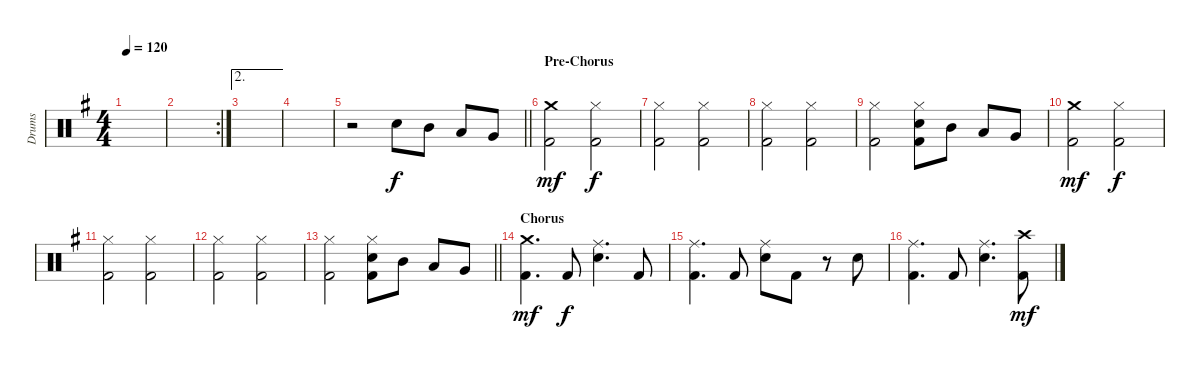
\track ("Drums" "Drums") {instrument percussion}
\staff {score}
\articulation defaults
\ts (4 4)
\tempo 120
\clef neutral
\ks g
|
\rc 2
|
\ae 2
|
|
\barLineRight lightlight
r.2 "Snare (hit) 2".8 "Mid Tom (hit)".8 "Low Tom (hit)".8 "Very Low Tom (hit)".8 |
\section ("" "Pre-Chorus")
("Crash medium (hit)" "Kick (hit) 2").2{dy mf} ("Hi-Hat (closed)" "Kick (hit) 2").2{dy f} |
("Hi-Hat (closed)" "Kick (hit) 2").2 ("Hi-Hat (closed)" "Kick (hit) 2").2 |
("Hi-Hat (closed)" "Kick (hit) 2").2 ("Hi-Hat (closed)" "Kick (hit) 2").2 |
("Hi-Hat (closed)" "Kick (hit) 2").2 ("Hi-Hat (closed)" "Snare (hit) 2" "Kick (hit) 2").8 "Mid Tom (hit)".8 "Low Tom (hit)".8 "Very Low Tom (hit)".8 |
("Crash medium (hit)" "Kick (hit) 2").2{dy mf} ("Hi-Hat (closed)" "Kick (hit) 2").2{dy f} |
("Hi-Hat (closed)" "Kick (hit) 2").2 ("Hi-Hat (closed)" "Kick (hit) 2").2 |
("Hi-Hat (closed)" "Kick (hit) 2").2 ("Hi-Hat (closed)" "Kick (hit) 2").2 |
\barLineRight lightlight
("Hi-Hat (closed)" "Kick (hit) 2").2 ("Hi-Hat (closed)" "Snare (hit) 2" "Kick (hit) 2").8 "Mid Tom (hit)".8 "Low Tom (hit)".8 "Very Low Tom (hit)".8 |
\section ("" "Chorus")
("Crash medium (hit)" "Kick (hit) 2").4{d dy mf} "Kick (hit) 2".8{dy f} ("Ride (middle)" "Snare (hit) 2").4{d} "Kick (hit) 2".8 |
("Ride (middle)" "Kick (hit) 2").4{d} "Kick (hit) 2".8 ("Ride (middle)" "Snare (hit) 2").8 "Kick (hit) 2".8 r.8 "Snare (hit) 2".8 |
("Ride (middle)" "Kick (hit) 2").4{d} "Kick (hit) 2".8 ("Ride (middle)" "Snare (hit) 2").4{d} ("Crash high (hit)" "Kick (hit) 2").8{dy mf}
